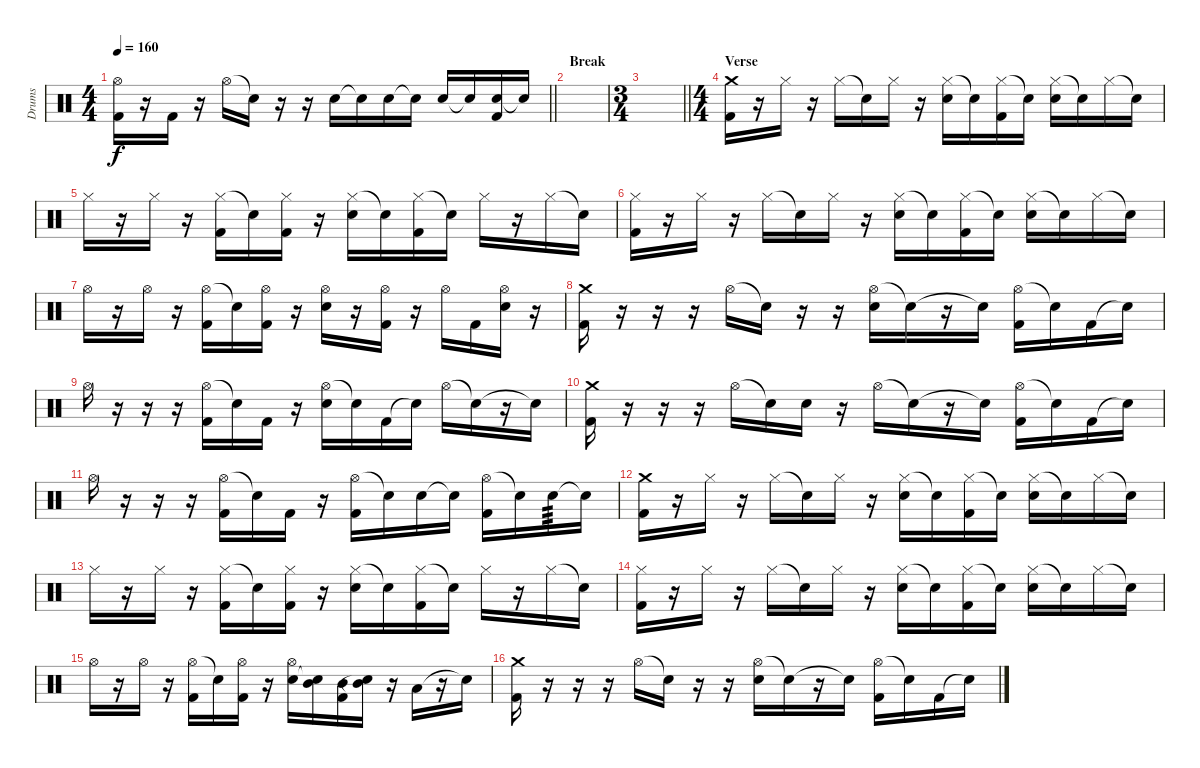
\track ("Drums" "Drums") {instrument percussion}
\staff {score}
\articulation defaults
\ts (4 4)
\tempo 160
\clef neutral
\barLineRight lightlight
\ks c
("Hi-Hat (open)" "Kick (hit) 2").16{dy f} r.16 "Kick (hit) 2".16 r.16 "Hi-Hat (open)".16 "Snare (hit)"{t}.16 r.16 r.16 "Snare (hit) 2".16 "Snare (hit)"{t}.16 "Snare (hit) 2".16 "Snare (hit)"{t}.16 "Snare (hit) 2".16 "Snare (hit)"{t}.16 ("Snare (hit) 2" "Kick (hit) 2").16 "Snare (hit)"{t}.16 |
\section ("" "Break")
|
\ts (3 4)
\barLineRight lightlight
|
\ts (4 4)
\section ("" "Verse")
("Crash medium (hit)" "Kick (hit) 2").16 r.16 "Hi-Hat (closed)".16 r.16 "Hi-Hat (closed)".16 "Snare (hit)"{t}.16 "Hi-Hat (closed)".16 r.16 ("Hi-Hat (closed)" "Snare (hit) 2").16 "Snare (hit)"{t}.16 ("Hi-Hat (closed)" "Kick (hit) 2").16 "Snare (hit)"{t}.16 ("Hi-Hat (closed)" "Snare (hit) 2").16 "Snare (hit)"{t}.16 "Hi-Hat (closed)".16 "Snare (hit)"{t}.16 |
"Hi-Hat (closed)".16 r.16 "Hi-Hat (closed)".16 r.16 ("Hi-Hat (closed)" "Kick (hit) 2").16 "Snare (hit)"{t}.16 ("Hi-Hat (closed)" "Kick (hit) 2").16 r.16 ("Hi-Hat (closed)" "Snare (hit) 2").16 "Snare (hit)"{t}.16 ("Hi-Hat (closed)" "Kick (hit) 2").16 "Snare (hit)"{t}.16 "Hi-Hat (closed)".16 r.16 "Hi-Hat (closed)".16 "Snare (hit)"{t}.16 |
("Hi-Hat (closed)" "Kick (hit) 2").16 r.16 "Hi-Hat (closed)".16 r.16 "Hi-Hat (closed)".16 "Snare (hit)"{t}.16 "Hi-Hat (closed)".16 r.16 ("Hi-Hat (closed)" "Snare (hit) 2").16 "Snare (hit)"{t}.16 ("Hi-Hat (closed)" "Kick (hit) 2").16 "Snare (hit)"{t}.16 ("Hi-Hat (closed)" "Snare (hit) 2").16 "Snare (hit)"{t}.16 "Hi-Hat (closed)".16 "Snare (hit)"{t}.16 |
"Hi-Hat (open)".16 r.16 "Hi-Hat (open)".16 r.16 ("Hi-Hat (open)" "Kick (hit) 2").16 "Snare (hit)"{t}.16 ("Hi-Hat (open)" "Kick (hit) 2").16 r.16 ("Hi-Hat (open)" "Snare (hit) 2").16 r.16 ("Hi-Hat (open)" "Kick (hit) 2").16 r.16 "Hi-Hat (open)".16 "Kick (hit) 2".16 ("Hi-Hat (open)" "Snare (hit) 2").16 r.16 |
("Crash medium (hit)" "Kick (hit) 2").16 r.16 r.16 r.16 "Hi-Hat (open)".16 "Snare (hit)"{t}.16 r.16 r.16 ("Hi-Hat (open)" "Snare (hit) 2").16 "Snare (hit)"{t}.16 r.16 "Snare (hit)"{t}.16 ("Hi-Hat (open)" "Kick (hit) 2").16 "Snare (hit)"{t}.16 "Kick (hit) 2".16 "Snare (hit)"{t}.16 |
"Hi-Hat (open)".16 r.16 r.16 r.16 ("Hi-Hat (open)" "Kick (hit) 2").16 "Snare (hit)"{t}.16 "Kick (hit) 2".16 r.16 ("Hi-Hat (open)" "Snare (hit) 2").16 "Snare (hit)"{t}.16 "Kick (hit) 2".16 "Snare (hit)"{t}.16 "Hi-Hat (open)".16 "Snare (hit)"{t}.16 r.16 "Snare (hit)"{t}.16 |
("Crash medium (hit)" "Kick (hit) 2").16 r.16 r.16 r.16 "Hi-Hat (open)".16 "Snare (hit)"{t}.16 "Snare (hit) 2".16 r.16 "Hi-Hat (open)".16 "Snare (hit)"{t}.16 r.16 "Snare (hit)"{t}.16 ("Hi-Hat (open)" "Kick (hit) 2").16 "Snare (hit)"{t}.16 "Kick (hit) 2".16 "Snare (hit)"{t}.16 |
"Hi-Hat (open)".16 r.16 r.16 r.16 ("Hi-Hat (open)" "Kick (hit) 2").16 "Snare (hit)"{t}.16 "Kick (hit) 2".16 r.16 ("Hi-Hat (open)" "Kick (hit) 2").16 "Snare (hit)"{t}.16 "Snare (hit) 2".16 "Snare (hit)"{t}.16 ("Hi-Hat (open)" "Kick (hit) 2").16 "Snare (hit)"{t}.16 "Snare (hit) 2".16{tp 3} "Snare (hit)"{t}.16 |
("Crash medium (hit)" "Kick (hit) 2").16 r.16 "Hi-Hat (closed)".16 r.16 "Hi-Hat (closed)".16 "Snare (hit)"{t}.16 "Hi-Hat (closed)".16 r.16 ("Hi-Hat (closed)" "Snare (hit) 2").16 "Snare (hit)"{t}.16 ("Hi-Hat (closed)" "Kick (hit) 2").16 "Snare (hit)"{t}.16 ("Hi-Hat (closed)" "Snare (hit) 2").16 "Snare (hit)"{t}.16 "Hi-Hat (closed)".16 "Snare (hit)"{t}.16 |
"Hi-Hat (closed)".16 r.16 "Hi-Hat (closed)".16 r.16 ("Hi-Hat (closed)" "Kick (hit) 2").16 "Snare (hit)"{t}.16 ("Hi-Hat (closed)" "Kick (hit) 2").16 r.16 ("Hi-Hat (closed)" "Snare (hit) 2").16 "Snare (hit)"{t}.16 ("Hi-Hat (closed)" "Kick (hit) 2").16 "Snare (hit)"{t}.16 "Hi-Hat (closed)".16 r.16 "Hi-Hat (closed)".16 "Snare (hit)"{t}.16 |
("Hi-Hat (closed)" "Kick (hit) 2").16 r.16 "Hi-Hat (closed)".16 r.16 "Hi-Hat (closed)".16 "Snare (hit)"{t}.16 "Hi-Hat (closed)".16 r.16 ("Hi-Hat (closed)" "Snare (hit) 2").16 "Snare (hit)"{t}.16 ("Hi-Hat (closed)" "Kick (hit) 2").16 "Snare (hit)"{t}.16 ("Hi-Hat (closed)" "Snare (hit) 2").16 "Snare (hit)"{t}.16 "Hi-Hat (closed)".16 "Snare (hit)"{t}.16 |
"Hi-Hat (open)".16 r.16 "Hi-Hat (open)".16 r.16 ("Hi-Hat (open)" "Kick (hit) 2").16 "Snare (hit)"{t}.16 ("Hi-Hat (open)" "Kick (hit) 2").16 r.16 ("Hi-Hat (open)" "Snare (hit) 2").16 ("Mid Tom (hit)" "Snare (hit)"{t}).16 ("Mid Tom (hit)" "Kick (hit) 2").16 ("Mid Tom (hit)" "Snare (hit)"{t}).16 r.16 "Low Tom (hit)".16 r.16 "Snare (hit)"{t}.16 |
("Crash medium (hit)" "Kick (hit) 2").16 r.16 r.16 r.16 "Hi-Hat (open)".16 "Snare (hit)"{t}.16 r.16 r.16 ("Hi-Hat (open)" "Snare (hit) 2").16 "Snare (hit)"{t}.16 r.16 "Snare (hit)"{t}.16 ("Hi-Hat (open)" "Kick (hit) 2").16 "Snare (hit)"{t}.16 "Kick (hit) 2".16 "Snare (hit)"{t}.16
